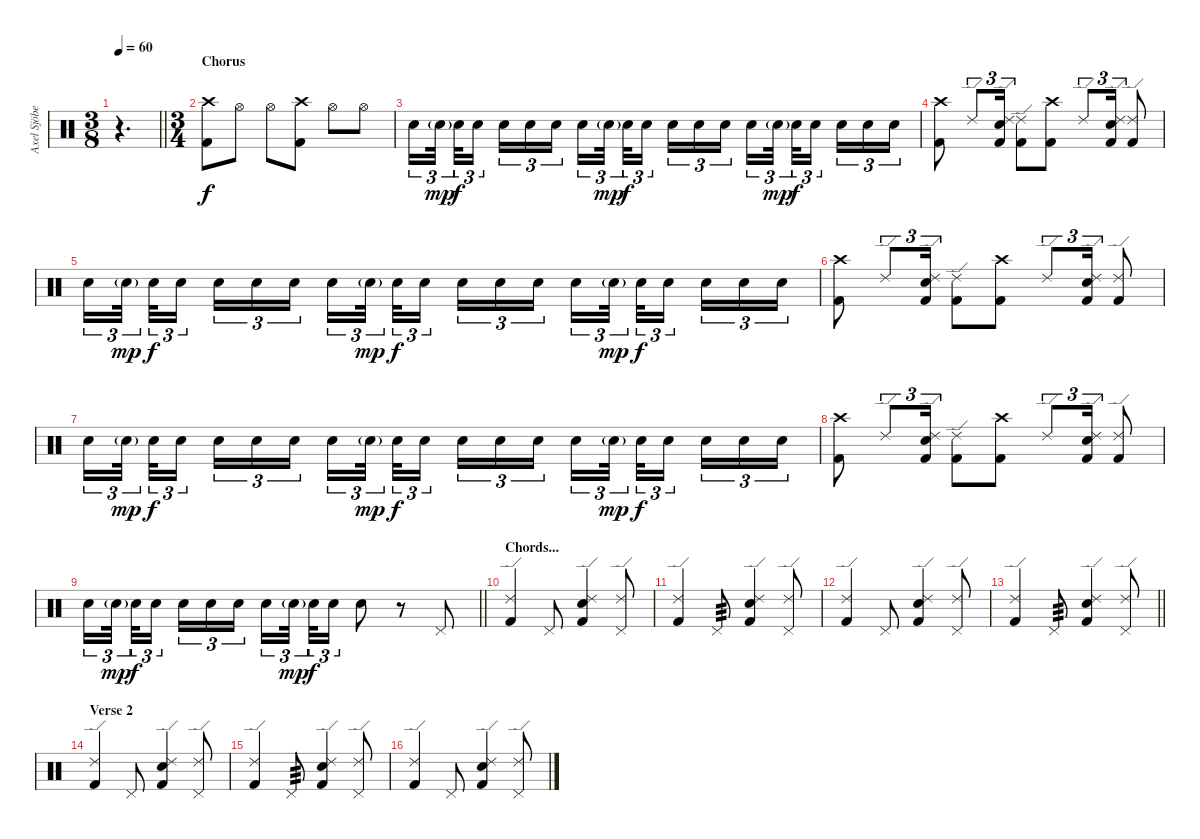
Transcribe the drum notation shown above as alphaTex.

\track ("Axel Sjöberg " "Axel Sjöbe") {instrument percussion}
\staff {score}
\articulation defaults
\ts (3 8)
\tempo 60
\clef neutral
\barLineRight lightlight
\ks c
r.4{d dy f} |
\ts (3 4)
\section ("" "Chorus")
("Kick (hit) 2" "Crash high (hit)").8 "Hi-Hat (open)".8 "Hi-Hat (open)".8 ("Kick (hit) 2" "Crash high (hit)").8 "Hi-Hat (open)".8 "Hi-Hat (open)".8 |
"Snare (hit) 2".16{tu (3 2)} "Snare (hit) 2"{g}.32{tu (3 2) dy mp beam splitsecondary} "Snare (hit) 2".32{tu (3 2) dy f} "Snare (hit) 2".16{tu (3 2) beam splitsecondary} "Snare (hit) 2".16{tu (3 2)} "Snare (hit) 2".16{tu (3 2)} "Snare (hit) 2".16{tu (3 2)} "Snare (hit) 2".16{tu (3 2)} "Snare (hit) 2"{g}.32{tu (3 2) dy mp beam splitsecondary} "Snare (hit) 2".32{tu (3 2) dy f} "Snare (hit) 2".16{tu (3 2) beam splitsecondary} "Snare (hit) 2".16{tu (3 2)} "Snare (hit) 2".16{tu (3 2)} "Snare (hit) 2".16{tu (3 2)} "Snare (hit) 2".16{tu (3 2)} "Snare (hit) 2"{g}.32{tu (3 2) dy mp beam splitsecondary} "Snare (hit) 2".32{tu (3 2) dy f} "Snare (hit) 2".16{tu (3 2) beam splitsecondary} "Snare (hit) 2".16{tu (3 2)} "Snare (hit) 2".16{tu (3 2)} "Snare (hit) 2".16{tu (3 2)} |
("Kick (hit) 2" "Crash high (hit)").8 "Ride (edge) 2".8{tu (3 2)} ("Kick (hit) 2" "Snare (hit) 2" "Ride (edge) 2").16{tu (3 2)} ("Kick (hit) 2" "Ride (edge) 2").8 ("Kick (hit) 2" "Crash high (hit)").8 "Ride (edge) 2".8{tu (3 2)} ("Kick (hit) 2" "Snare (hit) 2" "Ride (edge) 2").16{tu (3 2)} ("Kick (hit) 2" "Ride (edge) 2").8 |
"Snare (hit) 2".16{tu (3 2)} "Snare (hit) 2"{g}.32{tu (3 2) dy mp beam splitsecondary} "Snare (hit) 2".32{tu (3 2) dy f} "Snare (hit) 2".16{tu (3 2) beam splitsecondary} "Snare (hit) 2".16{tu (3 2)} "Snare (hit) 2".16{tu (3 2)} "Snare (hit) 2".16{tu (3 2)} "Snare (hit) 2".16{tu (3 2)} "Snare (hit) 2"{g}.32{tu (3 2) dy mp beam splitsecondary} "Snare (hit) 2".32{tu (3 2) dy f} "Snare (hit) 2".16{tu (3 2) beam splitsecondary} "Snare (hit) 2".16{tu (3 2)} "Snare (hit) 2".16{tu (3 2)} "Snare (hit) 2".16{tu (3 2)} "Snare (hit) 2".16{tu (3 2)} "Snare (hit) 2"{g}.32{tu (3 2) dy mp beam splitsecondary} "Snare (hit) 2".32{tu (3 2) dy f} "Snare (hit) 2".16{tu (3 2) beam splitsecondary} "Snare (hit) 2".16{tu (3 2)} "Snare (hit) 2".16{tu (3 2)} "Snare (hit) 2".16{tu (3 2)} |
("Kick (hit) 2" "Crash high (hit)").8 "Ride (edge) 2".8{tu (3 2)} ("Kick (hit) 2" "Snare (hit) 2" "Ride (edge) 2").16{tu (3 2)} ("Kick (hit) 2" "Ride (edge) 2").8 ("Kick (hit) 2" "Crash high (hit)").8 "Ride (edge) 2".8{tu (3 2)} ("Kick (hit) 2" "Snare (hit) 2" "Ride (edge) 2").16{tu (3 2)} ("Kick (hit) 2" "Ride (edge) 2").8 |
"Snare (hit) 2".16{tu (3 2)} "Snare (hit) 2"{g}.32{tu (3 2) dy mp beam splitsecondary} "Snare (hit) 2".32{tu (3 2) dy f} "Snare (hit) 2".16{tu (3 2) beam splitsecondary} "Snare (hit) 2".16{tu (3 2)} "Snare (hit) 2".16{tu (3 2)} "Snare (hit) 2".16{tu (3 2)} "Snare (hit) 2".16{tu (3 2)} "Snare (hit) 2"{g}.32{tu (3 2) dy mp beam splitsecondary} "Snare (hit) 2".32{tu (3 2) dy f} "Snare (hit) 2".16{tu (3 2) beam splitsecondary} "Snare (hit) 2".16{tu (3 2)} "Snare (hit) 2".16{tu (3 2)} "Snare (hit) 2".16{tu (3 2)} "Snare (hit) 2".16{tu (3 2)} "Snare (hit) 2"{g}.32{tu (3 2) dy mp beam splitsecondary} "Snare (hit) 2".32{tu (3 2) dy f} "Snare (hit) 2".16{tu (3 2) beam splitsecondary} "Snare (hit) 2".16{tu (3 2)} "Snare (hit) 2".16{tu (3 2)} "Snare (hit) 2".16{tu (3 2)} |
("Kick (hit) 2" "Crash high (hit)").8 "Ride (edge) 2".8{tu (3 2)} ("Kick (hit) 2" "Snare (hit) 2" "Ride (edge) 2").16{tu (3 2)} ("Kick (hit) 2" "Ride (edge) 2").8 ("Kick (hit) 2" "Crash high (hit)").8 "Ride (edge) 2".8{tu (3 2)} ("Kick (hit) 2" "Snare (hit) 2" "Ride (edge) 2").16{tu (3 2)} ("Kick (hit) 2" "Ride (edge) 2").8 |
\barLineRight lightlight "Snare (hit) 2".16{tu (3 2)} "Snare (hit) 2"{g}.32{tu (3 2) dy mp beam splitsecondary} "Snare (hit) 2".32{tu (3 2) dy f} "Snare (hit) 2".16{tu (3 2) beam splitsecondary} "Snare (hit) 2".16{tu (3 2)} "Snare (hit) 2".16{tu (3 2)} "Snare (hit) 2".16{tu (3 2)} "Snare (hit) 2".16{tu (3 2)} "Snare (hit) 2"{g}.32{tu (3 2) dy mp beam splitsecondary} "Snare (hit) 2".32{tu (3 2) dy f} "Snare (hit) 2".16{tu (3 2)} "Snare (hit) 2".8
r.8 "Pedal Hi-Hat (hit)".8 |
\section ("" "Chords...")
("Kick (hit) 2" "Ride (edge) 2").4 "Pedal Hi-Hat (hit)".8 ("Kick (hit) 2" "Snare (hit) 2" "Ride (edge) 2").4 ("Ride (edge) 2" "Pedal Hi-Hat (hit)").8 |
("Kick (hit) 2" "Ride (edge) 2").4 "Pedal Hi-Hat (hit)".8{tp 3} ("Kick (hit) 2" "Snare (hit) 2" "Ride (edge) 2").4 ("Ride (edge) 2" "Pedal Hi-Hat (hit)").8 |
("Kick (hit) 2" "Ride (edge) 2").4 "Pedal Hi-Hat (hit)".8 ("Kick (hit) 2" "Snare (hit) 2" "Ride (edge) 2").4 ("Ride (edge) 2" "Pedal Hi-Hat (hit)").8 |
\barLineRight lightlight
("Kick (hit) 2" "Ride (edge) 2").4 "Pedal Hi-Hat (hit)".8{tp 3} ("Kick (hit) 2" "Snare (hit) 2" "Ride (edge) 2").4 ("Ride (edge) 2" "Pedal Hi-Hat (hit)").8 |
\section ("" "Verse 2")
("Kick (hit) 2" "Ride (edge) 2").4 "Pedal Hi-Hat (hit)".8 ("Kick (hit) 2" "Snare (hit) 2" "Ride (edge) 2").4 ("Ride (edge) 2" "Pedal Hi-Hat (hit)").8 |
("Kick (hit) 2" "Ride (edge) 2").4 "Pedal Hi-Hat (hit)".8{tp 3} ("Kick (hit) 2" "Snare (hit) 2" "Ride (edge) 2").4 ("Ride (edge) 2" "Pedal Hi-Hat (hit)").8 |
("Kick (hit) 2" "Ride (edge) 2").4 "Pedal Hi-Hat (hit)".8 ("Kick (hit) 2" "Snare (hit) 2" "Ride (edge) 2").4 ("Ride (edge) 2" "Pedal Hi-Hat (hit)").8
